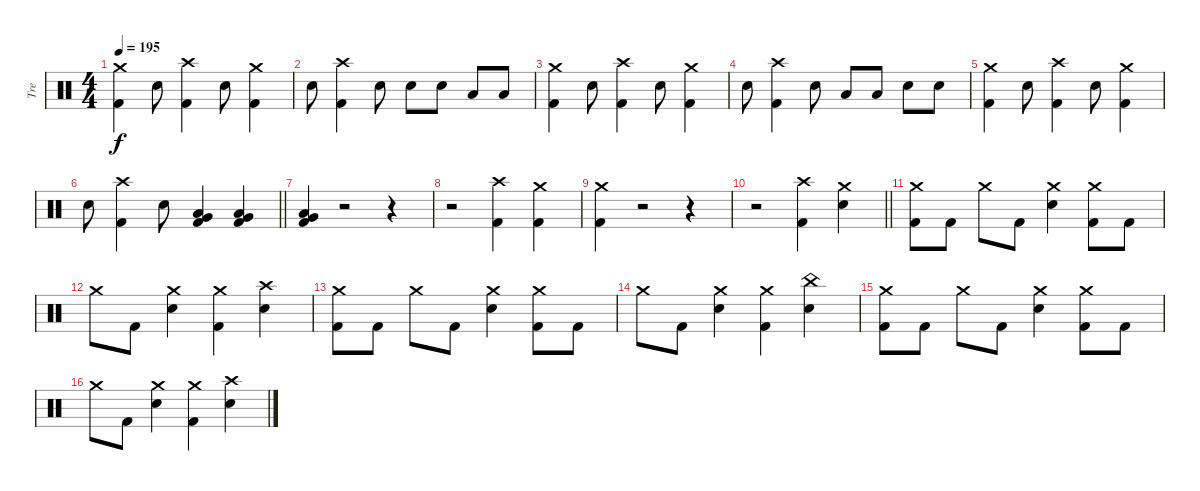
\track ("Tre" "Tre") {instrument percussion}
\staff {score}
\articulation defaults
\ts (4 4)
\tempo 195
\clef neutral
\ks c
("Crash medium (hit)" "Kick (hit) 2").4{dy f} "Snare (hit) 2".8 ("Crash high (hit)" "Kick (hit) 2").4 "Snare (hit) 2".8 ("Crash medium (hit)" "Kick (hit) 2").4 |
"Snare (hit) 2".8 ("Crash high (hit)" "Kick (hit) 2").4 "Snare (hit) 2".8 "Snare (hit) 2".8 "Snare (hit) 2".8 "Low Tom (hit)".8 "Low Tom (hit)".8 |
("Crash medium (hit)" "Kick (hit) 2").4 "Snare (hit) 2".8 ("Crash high (hit)" "Kick (hit) 2").4 "Snare (hit) 2".8 ("Crash medium (hit)" "Kick (hit) 2").4 |
"Snare (hit) 2".8 ("Crash high (hit)" "Kick (hit) 2").4 "Snare (hit) 2".8 "Low Tom (hit)".8 "Low Tom (hit)".8 "Snare (hit) 2".8 "Snare (hit) 2".8 |
("Crash medium (hit)" "Kick (hit) 2").4 "Snare (hit) 2".8 ("Crash high (hit)" "Kick (hit) 2").4 "Snare (hit) 2".8 ("Crash medium (hit)" "Kick (hit) 2").4 |
\barLineRight lightlight "Snare (hit) 2".8
("Crash high (hit)" "Kick (hit) 2").4 "Snare (hit) 2".8 ("Low Tom (hit)" "Very Low Tom (hit)" "Kick (hit) 2").4 ("Low Tom (hit)" "Very Low Tom (hit)" "Kick (hit) 2").4 |
("Low Tom (hit)" "Very Low Tom (hit)" "Kick (hit) 2").4 r.2 r.4 |
r.2 ("Crash high (hit)" "Kick (hit) 2").4 ("Crash medium (hit)" "Kick (hit) 2").4 |
("Crash medium (hit)" "Kick (hit) 2").4 r.2 r.4 |
\barLineRight lightlight
r.2 ("Crash high (hit)" "Kick (hit) 2").4 ("Crash medium (hit)" "Snare (hit) 2").4 |
("Crash medium (hit)" "Kick (hit) 2").8 "Kick (hit) 2".8 "Crash medium (hit)".8 "Kick (hit) 2".8 ("Crash medium (hit)" "Snare (hit) 2").4 ("Crash medium (hit)" "Kick (hit) 2").8 "Kick (hit) 2".8 |
"Crash medium (hit)".8 "Kick (hit) 2".8 ("Crash medium (hit)" "Snare (hit) 2").4 ("Crash medium (hit)" "Kick (hit) 2").4 ("Crash high (hit)" "Snare (hit) 2").4 |
("Crash medium (hit)" "Kick (hit) 2").8 "Kick (hit) 2".8 "Crash medium (hit)".8 "Kick (hit) 2".8 ("Crash medium (hit)" "Snare (hit) 2").4 ("Crash medium (hit)" "Kick (hit) 2").8 "Kick (hit) 2".8 |
"Crash medium (hit)".8 "Kick (hit) 2".8 ("Crash medium (hit)" "Snare (hit) 2").4 ("Crash medium (hit)" "Kick (hit) 2").4 ("China (hit)" "Snare (hit) 2").4 |
("Crash medium (hit)" "Kick (hit) 2").8 "Kick (hit) 2".8 "Crash medium (hit)".8 "Kick (hit) 2".8 ("Crash medium (hit)" "Snare (hit) 2").4 ("Crash medium (hit)" "Kick (hit) 2").8 "Kick (hit) 2".8 |
"Crash medium (hit)".8 "Kick (hit) 2".8 ("Crash medium (hit)" "Snare (hit) 2").4 ("Crash medium (hit)" "Kick (hit) 2").4 ("Crash high (hit)" "Snare (hit) 2").4
